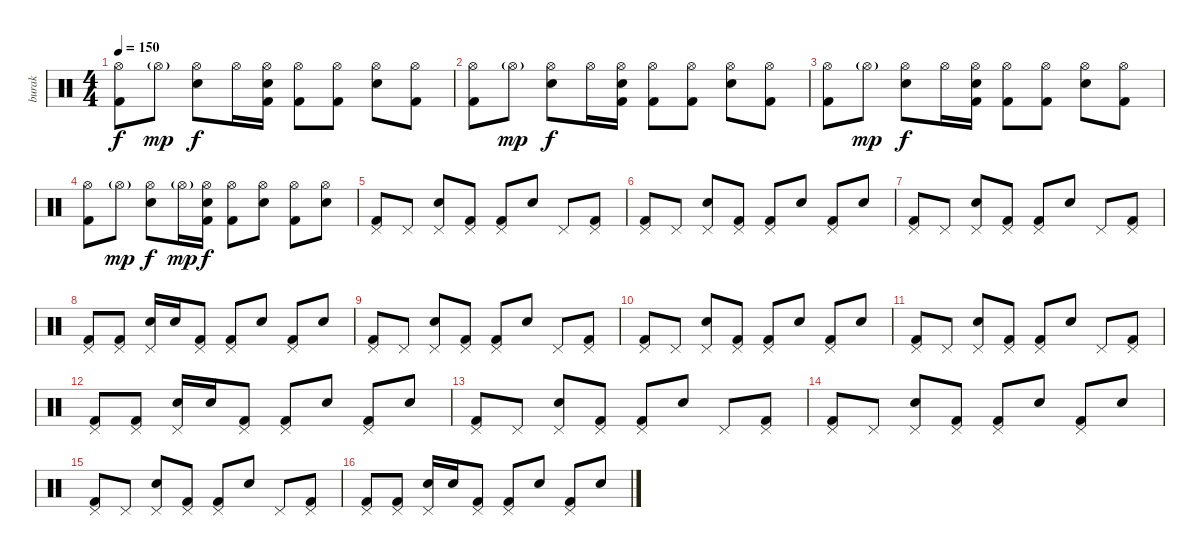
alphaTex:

\track ("burak" "burak") {instrument percussion}
\staff {score}
\articulation defaults
\ts (4 4)
\tempo 150
\clef neutral
\ks c
("Hi-Hat (open)" "Kick (hit) 2").8{dy f} "Hi-Hat (open)"{g}.8{dy mp} ("Hi-Hat (open)" "Electric Snare (hit)").8{dy f} "Hi-Hat (open)".16 ("Hi-Hat (open)" "Kick (hit) 2" "Electric Snare (hit)").16 ("Hi-Hat (open)" "Kick (hit) 2").8 ("Hi-Hat (open)" "Kick (hit) 2").8 ("Hi-Hat (open)" "Electric Snare (hit)").8 ("Hi-Hat (open)" "Kick (hit) 2").8 |
("Hi-Hat (open)" "Kick (hit) 2").8 "Hi-Hat (open)"{g}.8{dy mp} ("Hi-Hat (open)" "Electric Snare (hit)").8{dy f} "Hi-Hat (open)".16 ("Hi-Hat (open)" "Kick (hit) 2" "Electric Snare (hit)").16 ("Hi-Hat (open)" "Kick (hit) 2").8 ("Hi-Hat (open)" "Kick (hit) 2").8 ("Hi-Hat (open)" "Electric Snare (hit)").8 ("Hi-Hat (open)" "Kick (hit) 2").8 |
("Hi-Hat (open)" "Kick (hit) 2").8 "Hi-Hat (open)"{g}.8{dy mp} ("Hi-Hat (open)" "Electric Snare (hit)").8{dy f} "Hi-Hat (open)".16 ("Hi-Hat (open)" "Kick (hit) 2" "Electric Snare (hit)").16 ("Hi-Hat (open)" "Kick (hit) 2").8 ("Hi-Hat (open)" "Kick (hit) 2").8 ("Hi-Hat (open)" "Electric Snare (hit)").8 ("Hi-Hat (open)" "Kick (hit) 2").8 |
("Hi-Hat (open)" "Kick (hit) 2").8 "Hi-Hat (open)"{g}.8{dy mp} ("Hi-Hat (open)" "Electric Snare (hit)").8{dy f} "Hi-Hat (open)"{g}.16{dy mp} ("Hi-Hat (open)" "Kick (hit) 2" "Electric Snare (hit)").16{dy f} ("Hi-Hat (open)" "Kick (hit) 2").8 ("Hi-Hat (open)" "Electric Snare (hit)").8 ("Hi-Hat (open)" "Kick (hit) 2").8 ("Hi-Hat (open)" "Electric Snare (hit)").8 |
("Pedal Hi-Hat (hit)" "Kick (hit) 2").8 "Pedal Hi-Hat (hit)".8 ("Pedal Hi-Hat (hit)" "Electric Snare (hit)").8 ("Pedal Hi-Hat (hit)" "Kick (hit) 2").8 ("Pedal Hi-Hat (hit)" "Kick (hit) 2").8 "Electric Snare (hit)".8 "Pedal Hi-Hat (hit)".8 ("Pedal Hi-Hat (hit)" "Kick (hit) 2").8 |
("Pedal Hi-Hat (hit)" "Kick (hit) 2").8 "Pedal Hi-Hat (hit)".8 ("Pedal Hi-Hat (hit)" "Electric Snare (hit)").8 ("Pedal Hi-Hat (hit)" "Kick (hit) 2").8 ("Pedal Hi-Hat (hit)" "Kick (hit) 2").8 "Electric Snare (hit)".8 ("Pedal Hi-Hat (hit)" "Kick (hit) 2").8 "Electric Snare (hit)".8 |
("Pedal Hi-Hat (hit)" "Kick (hit) 2").8 "Pedal Hi-Hat (hit)".8 ("Pedal Hi-Hat (hit)" "Electric Snare (hit)").8 ("Pedal Hi-Hat (hit)" "Kick (hit) 2").8 ("Pedal Hi-Hat (hit)" "Kick (hit) 2").8 "Electric Snare (hit)".8 "Pedal Hi-Hat (hit)".8 ("Pedal Hi-Hat (hit)" "Kick (hit) 2").8 |
("Pedal Hi-Hat (hit)" "Kick (hit) 2").8 ("Pedal Hi-Hat (hit)" "Kick (hit) 2").8 ("Pedal Hi-Hat (hit)" "Electric Snare (hit)").16 "Electric Snare (hit)".16 ("Pedal Hi-Hat (hit)" "Kick (hit) 2").8 ("Pedal Hi-Hat (hit)" "Kick (hit) 2").8 "Electric Snare (hit)".8 ("Pedal Hi-Hat (hit)" "Kick (hit) 2").8 "Electric Snare (hit)".8 |
("Pedal Hi-Hat (hit)" "Kick (hit) 2").8 "Pedal Hi-Hat (hit)".8 ("Pedal Hi-Hat (hit)" "Electric Snare (hit)").8 ("Pedal Hi-Hat (hit)" "Kick (hit) 2").8 ("Pedal Hi-Hat (hit)" "Kick (hit) 2").8 "Electric Snare (hit)".8 "Pedal Hi-Hat (hit)".8 ("Pedal Hi-Hat (hit)" "Kick (hit) 2").8 |
("Pedal Hi-Hat (hit)" "Kick (hit) 2").8 "Pedal Hi-Hat (hit)".8 ("Pedal Hi-Hat (hit)" "Electric Snare (hit)").8 ("Pedal Hi-Hat (hit)" "Kick (hit) 2").8 ("Pedal Hi-Hat (hit)" "Kick (hit) 2").8 "Electric Snare (hit)".8 ("Pedal Hi-Hat (hit)" "Kick (hit) 2").8 "Electric Snare (hit)".8 |
("Pedal Hi-Hat (hit)" "Kick (hit) 2").8 "Pedal Hi-Hat (hit)".8 ("Pedal Hi-Hat (hit)" "Electric Snare (hit)").8 ("Pedal Hi-Hat (hit)" "Kick (hit) 2").8 ("Pedal Hi-Hat (hit)" "Kick (hit) 2").8 "Electric Snare (hit)".8 "Pedal Hi-Hat (hit)".8 ("Pedal Hi-Hat (hit)" "Kick (hit) 2").8 |
("Pedal Hi-Hat (hit)" "Kick (hit) 2").8 ("Pedal Hi-Hat (hit)" "Kick (hit) 2").8 ("Pedal Hi-Hat (hit)" "Electric Snare (hit)").16 "Electric Snare (hit)".16 ("Pedal Hi-Hat (hit)" "Kick (hit) 2").8 ("Pedal Hi-Hat (hit)" "Kick (hit) 2").8 "Electric Snare (hit)".8 ("Pedal Hi-Hat (hit)" "Kick (hit) 2").8 "Electric Snare (hit)".8 |
("Pedal Hi-Hat (hit)" "Kick (hit) 2").8 "Pedal Hi-Hat (hit)".8 ("Pedal Hi-Hat (hit)" "Electric Snare (hit)").8 ("Pedal Hi-Hat (hit)" "Kick (hit) 2").8 ("Pedal Hi-Hat (hit)" "Kick (hit) 2").8 "Electric Snare (hit)".8 "Pedal Hi-Hat (hit)".8 ("Pedal Hi-Hat (hit)" "Kick (hit) 2").8 |
("Pedal Hi-Hat (hit)" "Kick (hit) 2").8 "Pedal Hi-Hat (hit)".8 ("Pedal Hi-Hat (hit)" "Electric Snare (hit)").8 ("Pedal Hi-Hat (hit)" "Kick (hit) 2").8 ("Pedal Hi-Hat (hit)" "Kick (hit) 2").8 "Electric Snare (hit)".8 ("Pedal Hi-Hat (hit)" "Kick (hit) 2").8 "Electric Snare (hit)".8 |
("Pedal Hi-Hat (hit)" "Kick (hit) 2").8 "Pedal Hi-Hat (hit)".8 ("Pedal Hi-Hat (hit)" "Electric Snare (hit)").8 ("Pedal Hi-Hat (hit)" "Kick (hit) 2").8 ("Pedal Hi-Hat (hit)" "Kick (hit) 2").8 "Electric Snare (hit)".8 "Pedal Hi-Hat (hit)".8 ("Pedal Hi-Hat (hit)" "Kick (hit) 2").8 |
("Pedal Hi-Hat (hit)" "Kick (hit) 2").8 ("Pedal Hi-Hat (hit)" "Kick (hit) 2").8 ("Pedal Hi-Hat (hit)" "Electric Snare (hit)").16 "Electric Snare (hit)".16 ("Pedal Hi-Hat (hit)" "Kick (hit) 2").8 ("Pedal Hi-Hat (hit)" "Kick (hit) 2").8 "Electric Snare (hit)".8 ("Pedal Hi-Hat (hit)" "Kick (hit) 2").8 "Electric Snare (hit)".8
